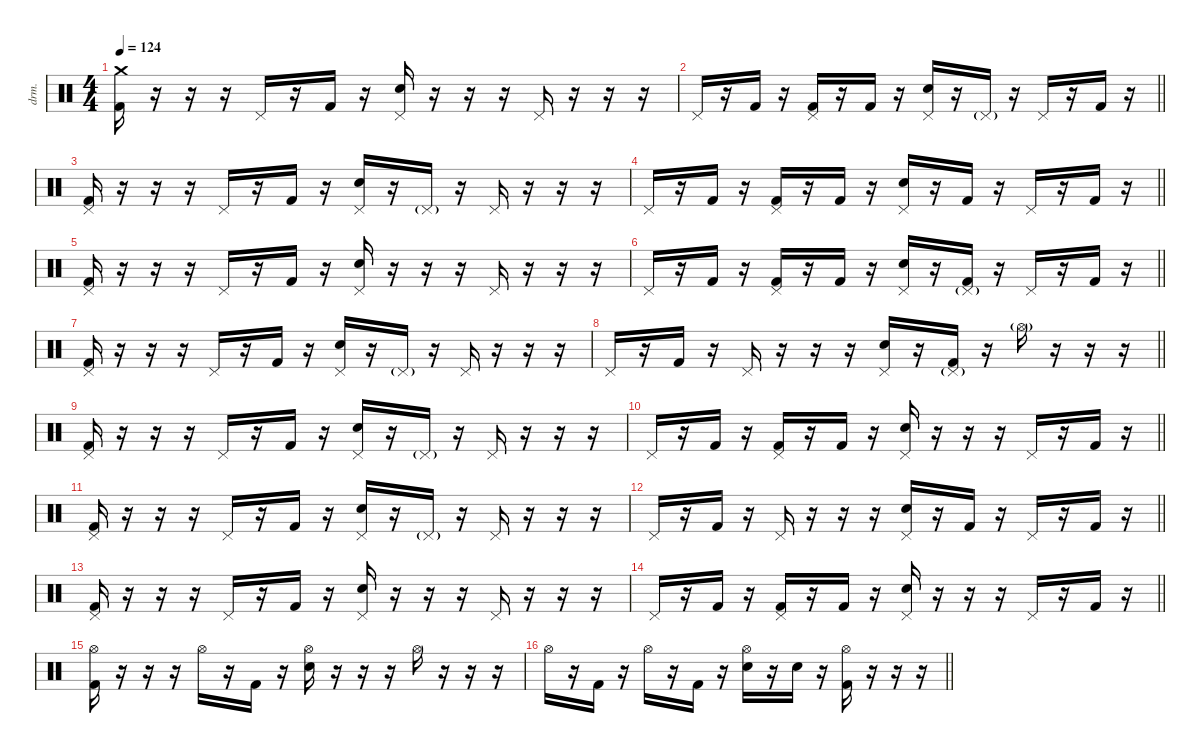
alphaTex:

\defaultSystemsLayout 4
\hideDynamics
\bracketExtendMode nobrackets
\otherSystemsTrackNameOrientation horizontal
\track ("Percussion" "drm.") {instrument percussion}
\staff {score}
\articulation defaults
\ts (4 4)
\section ("" "")
\tempo 124
\clef neutral
\ks c
("Kick (hit) 2" "Crash medium (hit)").16{dy f beam Down} r.16{beam Down} r.16{beam Down} r.16{beam Down} "Pedal Hi-Hat (hit)".16{beam Up} r.16{beam Up} "Kick (hit) 2".16{beam Up} r.16{beam Up} ("Snare (hit) 2" "Pedal Hi-Hat (hit)").16{beam Up} r.16{beam Up} r.16{beam Up} r.16{beam Up} "Pedal Hi-Hat (hit)".16{beam Up} r.16{beam Up} r.16{beam Up} r.16{beam Up} |
\barLineRight lightlight "Pedal Hi-Hat (hit)".16{beam Up}
r.16{beam Up} "Kick (hit) 2".16{beam Up} r.16{beam Up} ("Kick (hit) 2" "Pedal Hi-Hat (hit)").16{beam Up} r.16{beam Up} "Kick (hit) 2".16{beam Up} r.16{beam Up} ("Snare (hit) 2" "Pedal Hi-Hat (hit)").16{beam Up} r.16{beam Up} "Pedal Hi-Hat (hit)"{g}.16{dy mf beam Up} r.16{beam Up} "Pedal Hi-Hat (hit)".16{dy f beam Up} r.16{beam Up} "Kick (hit) 2".16{beam Up} r.16{beam Up} |
("Kick (hit) 2" "Pedal Hi-Hat (hit)").16{beam Up} r.16{beam Up} r.16{beam Up} r.16{beam Up} "Pedal Hi-Hat (hit)".16{beam Up} r.16{beam Up} "Kick (hit) 2".16{beam Up} r.16{beam Up} ("Snare (hit) 2" "Pedal Hi-Hat (hit)").16{beam Up} r.16{beam Up} "Pedal Hi-Hat (hit)"{g}.16{dy mf beam Up} r.16{beam Up} "Pedal Hi-Hat (hit)".16{dy f beam Up} r.16{beam Up} r.16{beam Up} r.16{beam Up} |
\barLineRight lightlight "Pedal Hi-Hat (hit)".16{beam Up}
r.16{beam Up} "Kick (hit) 2".16{beam Up} r.16{beam Up} ("Kick (hit) 2" "Pedal Hi-Hat (hit)").16{beam Up} r.16{beam Up} "Kick (hit) 2".16{beam Up} r.16{beam Up} ("Snare (hit) 2" "Pedal Hi-Hat (hit)").16{beam Up} r.16{beam Up} "Kick (hit) 2".16{beam Up} r.16{beam Up} "Pedal Hi-Hat (hit)".16{beam Up} r.16{beam Up} "Kick (hit) 2".16{beam Up} r.16{beam Up} |
("Kick (hit) 2" "Pedal Hi-Hat (hit)").16{beam Up} r.16{beam Up} r.16{beam Up} r.16{beam Up} "Pedal Hi-Hat (hit)".16{beam Up} r.16{beam Up} "Kick (hit) 2".16{beam Up} r.16{beam Up} ("Snare (hit) 2" "Pedal Hi-Hat (hit)").16{beam Up} r.16{beam Up} r.16{beam Up} r.16{beam Up} "Pedal Hi-Hat (hit)".16{beam Up} r.16{beam Up} r.16{beam Up} r.16{beam Up} |
\barLineRight lightlight "Pedal Hi-Hat (hit)".16{beam Up}
r.16{beam Up} "Kick (hit) 2".16{beam Up} r.16{beam Up} ("Kick (hit) 2" "Pedal Hi-Hat (hit)").16{beam Up} r.16{beam Up} "Kick (hit) 2".16{beam Up} r.16{beam Up} ("Snare (hit) 2" "Pedal Hi-Hat (hit)").16{beam Up} r.16{beam Up} ("Kick (hit) 2" "Pedal Hi-Hat (hit)"{g}).16{beam Up} r.16{beam Up} "Pedal Hi-Hat (hit)".16{beam Up} r.16{beam Up} "Kick (hit) 2".16{beam Up} r.16{beam Up} |
("Kick (hit) 2" "Pedal Hi-Hat (hit)").16{beam Up} r.16{beam Up} r.16{beam Up} r.16{beam Up} "Pedal Hi-Hat (hit)".16{beam Up} r.16{beam Up} "Kick (hit) 2".16{beam Up} r.16{beam Up} ("Snare (hit) 2" "Pedal Hi-Hat (hit)").16{beam Up} r.16{beam Up} "Pedal Hi-Hat (hit)"{g}.16{dy mf beam Up} r.16{beam Up} "Pedal Hi-Hat (hit)".16{dy f beam Up} r.16{beam Up} r.16{beam Up} r.16{beam Up} |
\barLineRight lightlight "Pedal Hi-Hat (hit)".16{beam Up}
r.16{beam Up} "Kick (hit) 2".16{beam Up} r.16{beam Up} "Pedal Hi-Hat (hit)".16{beam Up} r.16{beam Up} r.16{beam Up} r.16{beam Up} ("Snare (hit) 2" "Pedal Hi-Hat (hit)").16{beam Up} r.16{beam Up} ("Kick (hit) 2" "Pedal Hi-Hat (hit)"{g}).16{beam Up} r.16{beam Up} "Hi-Hat (open)"{g}.16{dy mf beam Down} r.16{beam Down} r.16{beam Down} r.16{beam Down} |
\section ("" "")
("Kick (hit) 2" "Pedal Hi-Hat (hit)").16{dy f beam Up} r.16{beam Up} r.16{beam Up} r.16{beam Up} "Pedal Hi-Hat (hit)".16{beam Up} r.16{beam Up} "Kick (hit) 2".16{beam Up} r.16{beam Up} ("Snare (hit) 2" "Pedal Hi-Hat (hit)").16{beam Up} r.16{beam Up} "Pedal Hi-Hat (hit)"{g}.16{dy mf beam Up} r.16{beam Up} "Pedal Hi-Hat (hit)".16{dy f beam Up} r.16{beam Up} r.16{beam Up} r.16{beam Up} |
\barLineRight lightlight "Pedal Hi-Hat (hit)".16{beam Up}
r.16{beam Up} "Kick (hit) 2".16{beam Up} r.16{beam Up} ("Kick (hit) 2" "Pedal Hi-Hat (hit)").16{beam Up} r.16{beam Up} "Kick (hit) 2".16{beam Up} r.16{beam Up} ("Snare (hit) 2" "Pedal Hi-Hat (hit)").16{beam Up} r.16{beam Up} r.16{beam Up} r.16{beam Up} "Pedal Hi-Hat (hit)".16{beam Up} r.16{beam Up} "Kick (hit) 2".16{beam Up} r.16{beam Up} |
("Kick (hit) 2" "Pedal Hi-Hat (hit)").16{beam Up} r.16{beam Up} r.16{beam Up} r.16{beam Up} "Pedal Hi-Hat (hit)".16{beam Up} r.16{beam Up} "Kick (hit) 2".16{beam Up} r.16{beam Up} ("Snare (hit) 2" "Pedal Hi-Hat (hit)").16{beam Up} r.16{beam Up} "Pedal Hi-Hat (hit)"{g}.16{dy mf beam Up} r.16{beam Up} "Pedal Hi-Hat (hit)".16{dy f beam Up} r.16{beam Up} r.16{beam Up} r.16{beam Up} |
\barLineRight lightlight "Pedal Hi-Hat (hit)".16{beam Up}
r.16{beam Up} "Kick (hit) 2".16{beam Up} r.16{beam Up} "Pedal Hi-Hat (hit)".16{beam Up} r.16{beam Up} r.16{beam Up} r.16{beam Up} ("Snare (hit) 2" "Pedal Hi-Hat (hit)").16{beam Up} r.16{beam Up} "Kick (hit) 2".16{beam Up} r.16{beam Up} "Pedal Hi-Hat (hit)".16{beam Up} r.16{beam Up} "Kick (hit) 2".16{beam Up} r.16{beam Up} |
("Kick (hit) 2" "Pedal Hi-Hat (hit)").16{beam Up} r.16{beam Up} r.16{beam Up} r.16{beam Up} "Pedal Hi-Hat (hit)".16{beam Up} r.16{beam Up} "Kick (hit) 2".16{beam Up} r.16{beam Up} ("Snare (hit) 2" "Pedal Hi-Hat (hit)").16{beam Up} r.16{beam Up} r.16{beam Up} r.16{beam Up} "Pedal Hi-Hat (hit)".16{beam Up} r.16{beam Up} r.16{beam Up} r.16{beam Up} |
\barLineRight lightlight "Pedal Hi-Hat (hit)".16{beam Up}
r.16{beam Up} "Kick (hit) 2".16{beam Up} r.16{beam Up} ("Kick (hit) 2" "Pedal Hi-Hat (hit)").16{beam Up} r.16{beam Up} "Kick (hit) 2".16{beam Up} r.16{beam Up} ("Snare (hit) 2" "Pedal Hi-Hat (hit)").16{beam Up} r.16{beam Up} r.16{beam Up} r.16{beam Up} "Pedal Hi-Hat (hit)".16{beam Up} r.16{beam Up} "Kick (hit) 2".16{beam Up} r.16{beam Up} |
("Kick (hit) 2" "Hi-Hat (open)").16{beam Down} r.16{beam Down} r.16{beam Down} r.16{beam Down} "Hi-Hat (open)".16{dy pp beam Down} r.16{beam Down} "Kick (hit) 2".16{dy f beam Down} r.16{beam Down} ("Snare (hit) 2" "Hi-Hat (open)").16{beam Down} r.16{beam Down} r.16{beam Down} r.16{beam Down} "Hi-Hat (open)".16{dy pp beam Down} r.16{beam Down} r.16{beam Down} r.16{beam Down} |
\barLineRight lightlight "Hi-Hat (open)".16{beam Down}
r.16{beam Down} "Kick (hit) 2".16{dy f beam Down} r.16{beam Down} "Hi-Hat (open)".16{dy pp beam Down} r.16{beam Down} "Kick (hit) 2".16{dy f beam Down} r.16{beam Down} ("Snare (hit) 2" "Hi-Hat (open)").16{beam Down} r.16{beam Down} "Snare (hit) 2".16{beam Down} r.16{beam Down} ("Kick (hit) 2" "Hi-Hat (open)").16{beam Down} r.16{beam Down} r.16{beam Down} r.16{beam Down}
